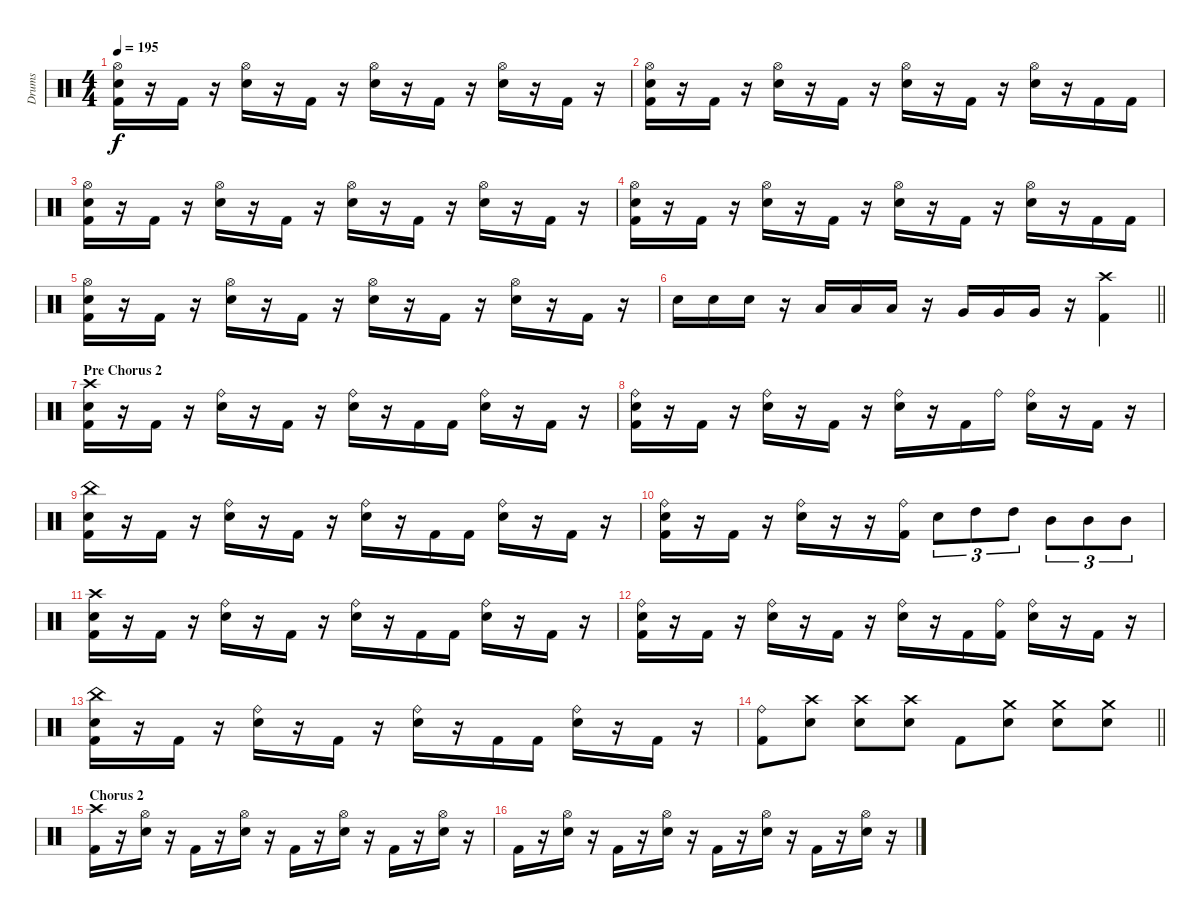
\track ("Drums" "Drums") {instrument percussion}
\staff {score}
\articulation defaults
\ts (4 4)
\tempo 195
\clef neutral
\ks c
("Hi-Hat (open)" "Electric Snare (hit)" "Kick (hit) 2").16{dy f} r.16 "Kick (hit) 2".16 r.16 ("Hi-Hat (open)" "Electric Snare (hit)").16 r.16 "Kick (hit) 2".16 r.16 ("Hi-Hat (open)" "Electric Snare (hit)").16 r.16 "Kick (hit) 2".16 r.16 ("Hi-Hat (open)" "Electric Snare (hit)").16 r.16 "Kick (hit) 2".16 r.16 |
("Hi-Hat (open)" "Electric Snare (hit)" "Kick (hit) 2").16 r.16 "Kick (hit) 2".16 r.16 ("Hi-Hat (open)" "Electric Snare (hit)").16 r.16 "Kick (hit) 2".16 r.16 ("Hi-Hat (open)" "Electric Snare (hit)").16 r.16 "Kick (hit) 2".16 r.16 ("Hi-Hat (open)" "Electric Snare (hit)").16 r.16 "Kick (hit) 2".16 "Kick (hit) 2".16 |
("Hi-Hat (open)" "Electric Snare (hit)" "Kick (hit) 2").16 r.16 "Kick (hit) 2".16 r.16 ("Hi-Hat (open)" "Electric Snare (hit)").16 r.16 "Kick (hit) 2".16 r.16 ("Hi-Hat (open)" "Electric Snare (hit)").16 r.16 "Kick (hit) 2".16 r.16 ("Hi-Hat (open)" "Electric Snare (hit)").16 r.16 "Kick (hit) 2".16 r.16 |
("Hi-Hat (open)" "Electric Snare (hit)" "Kick (hit) 2").16 r.16 "Kick (hit) 2".16 r.16 ("Hi-Hat (open)" "Electric Snare (hit)").16 r.16 "Kick (hit) 2".16 r.16 ("Hi-Hat (open)" "Electric Snare (hit)").16 r.16 "Kick (hit) 2".16 r.16 ("Hi-Hat (open)" "Electric Snare (hit)").16 r.16 "Kick (hit) 2".16 "Kick (hit) 2".16 |
("Hi-Hat (open)" "Electric Snare (hit)" "Kick (hit) 2").16 r.16 "Kick (hit) 2".16 r.16 ("Hi-Hat (open)" "Electric Snare (hit)").16 r.16 "Kick (hit) 2".16 r.16 ("Hi-Hat (open)" "Electric Snare (hit)").16 r.16 "Kick (hit) 2".16 r.16 ("Hi-Hat (open)" "Electric Snare (hit)").16 r.16 "Kick (hit) 2".16 r.16 |
\barLineRight lightlight "Electric Snare (hit)".16 "Electric Snare (hit)".16 "Electric Snare (hit)".16
r.16 "Low Tom (hit)".16 "Low Tom (hit)".16 "Low Tom (hit)".16 r.16 "Very Low Tom (hit)".16 "Very Low Tom (hit)".16 "Very Low Tom (hit)".16 r.16 ("Crash high (hit)" "Kick (hit) 2").4 |
\section ("" "Pre Chorus 2")
("Crash high (hit)" "Electric Snare (hit)" "Kick (hit) 2").16 r.16 "Kick (hit) 2".16 r.16 ("Ride (bell)" "Electric Snare (hit)").16 r.16 "Kick (hit) 2".16 r.16 ("Ride (bell)" "Electric Snare (hit)").16 r.16 "Kick (hit) 2".16 "Kick (hit) 2".16 ("Ride (bell)" "Electric Snare (hit)").16 r.16 "Kick (hit) 2".16 r.16 |
("Ride (bell)" "Electric Snare (hit)" "Kick (hit) 2").16 r.16 "Kick (hit) 2".16 r.16 ("Ride (bell)" "Electric Snare (hit)").16 r.16 "Kick (hit) 2".16 r.16 ("Ride (bell)" "Electric Snare (hit)").16 r.16 "Kick (hit) 2".16 "Ride (bell)".16 ("Ride (bell)" "Electric Snare (hit)").16 r.16 "Kick (hit) 2".16 r.16 |
("China (hit)" "Electric Snare (hit)" "Kick (hit) 2").16 r.16 "Kick (hit) 2".16 r.16 ("Ride (bell)" "Electric Snare (hit)").16 r.16 "Kick (hit) 2".16 r.16 ("Ride (bell)" "Electric Snare (hit)").16 r.16 "Kick (hit) 2".16 "Kick (hit) 2".16 ("Ride (bell)" "Electric Snare (hit)").16 r.16 "Kick (hit) 2".16 r.16 |
("Ride (bell)" "Electric Snare (hit)" "Kick (hit) 2").16 r.16 "Kick (hit) 2".16 r.16 ("Ride (bell)" "Electric Snare (hit)").16 r.16 r.16 ("Ride (bell)" "Kick (hit) 2").16 "Electric Snare (hit)".8{tu (3 2)} "High Tom (hit)".8{tu (3 2)} "High Tom (hit)".8{tu (3 2)} "Mid Tom (hit)".8{tu (3 2)} "Mid Tom (hit)".8{tu (3 2)} "Mid Tom (hit)".8{tu (3 2)} |
("Crash high (hit)" "Electric Snare (hit)" "Kick (hit) 2").16 r.16 "Kick (hit) 2".16 r.16 ("Ride (bell)" "Electric Snare (hit)").16 r.16 "Kick (hit) 2".16 r.16 ("Ride (bell)" "Electric Snare (hit)").16 r.16 "Kick (hit) 2".16 "Kick (hit) 2".16 ("Ride (bell)" "Electric Snare (hit)").16 r.16 "Kick (hit) 2".16 r.16 |
("Ride (bell)" "Electric Snare (hit)" "Kick (hit) 2").16 r.16 "Kick (hit) 2".16 r.16 ("Ride (bell)" "Electric Snare (hit)").16 r.16 "Kick (hit) 2".16 r.16 ("Ride (bell)" "Electric Snare (hit)").16 r.16 "Kick (hit) 2".16 ("Ride (bell)" "Kick (hit) 2").16 ("Ride (bell)" "Electric Snare (hit)").16 r.16 "Kick (hit) 2".16 r.16 |
("China (hit)" "Electric Snare (hit)" "Kick (hit) 2").16 r.16 "Kick (hit) 2".16 r.16 ("Ride (bell)" "Electric Snare (hit)").16 r.16 "Kick (hit) 2".16 r.16 ("Ride (bell)" "Electric Snare (hit)").16 r.16 "Kick (hit) 2".16 "Kick (hit) 2".16 ("Ride (bell)" "Electric Snare (hit)").16 r.16 "Kick (hit) 2".16 r.16 |
\barLineRight lightlight
("Ride (bell)" "Kick (hit) 2").8 ("Crash high (hit)" "Electric Snare (hit)").8 ("Crash high (hit)" "Electric Snare (hit)").8 ("Crash high (hit)" "Electric Snare (hit)").8 "Kick (hit) 2".8 ("Crash medium (hit)" "Electric Snare (hit)").8 ("Crash medium (hit)" "Electric Snare (hit)").8 ("Crash medium (hit)" "Electric Snare (hit)").8 |
\section ("" "Chorus 2")
("Crash high (hit)" "Kick (hit) 2").16 r.16 ("Hi-Hat (open)" "Electric Snare (hit)").16 r.16 "Kick (hit) 2".16 r.16 ("Hi-Hat (open)" "Electric Snare (hit)").16 r.16 "Kick (hit) 2".16 r.16 ("Hi-Hat (open)" "Electric Snare (hit)").16 r.16 "Kick (hit) 2".16 r.16 ("Hi-Hat (open)" "Electric Snare (hit)").16 r.16 |
"Kick (hit) 2".16 r.16 ("Hi-Hat (open)" "Electric Snare (hit)").16 r.16 "Kick (hit) 2".16 r.16 ("Hi-Hat (open)" "Electric Snare (hit)").16 r.16 "Kick (hit) 2".16 r.16 ("Hi-Hat (open)" "Electric Snare (hit)").16 r.16 "Kick (hit) 2".16 r.16 ("Hi-Hat (open)" "Electric Snare (hit)").16 r.16
